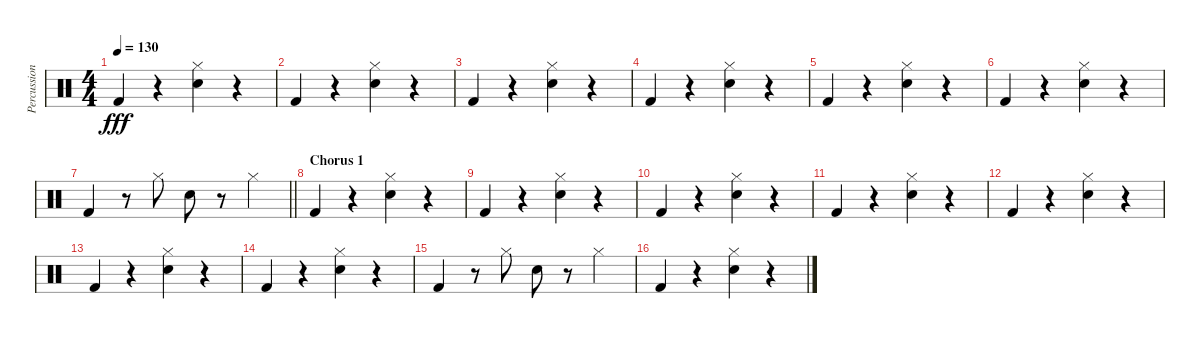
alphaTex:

\track ("Percussion" "Percussion") {instrument percussion}
\staff {score}
\articulation defaults
\ts (4 4)
\tempo 130
\clef neutral
\ks c "Kick (hit) 2".4{dy fff}
r.4 ("Hi-Hat (closed)" "Snare (hit) 2").4 r.4 |
"Kick (hit) 2".4 r.4 ("Hi-Hat (closed)" "Snare (hit) 2").4 r.4 |
"Kick (hit) 2".4 r.4 ("Hi-Hat (closed)" "Snare (hit) 2").4 r.4 |
"Kick (hit) 2".4 r.4 ("Hi-Hat (closed)" "Snare (hit) 2").4 r.4 |
"Kick (hit) 2".4 r.4 ("Hi-Hat (closed)" "Snare (hit) 2").4 r.4 |
"Kick (hit) 2".4 r.4 ("Hi-Hat (closed)" "Snare (hit) 2").4 r.4 |
\barLineRight lightlight "Kick (hit) 2".4
r.8 "Hi-Hat (closed)".8 "Snare (hit) 2".8 r.8 "Hi-Hat (closed)".4 |
\section ("" "Chorus 1")
"Kick (hit) 2".4 r.4 ("Hi-Hat (closed)" "Snare (hit) 2").4 r.4 |
"Kick (hit) 2".4 r.4 ("Hi-Hat (closed)" "Snare (hit) 2").4 r.4 |
"Kick (hit) 2".4 r.4 ("Hi-Hat (closed)" "Snare (hit) 2").4 r.4 |
"Kick (hit) 2".4 r.4 ("Hi-Hat (closed)" "Snare (hit) 2").4 r.4 |
"Kick (hit) 2".4 r.4 ("Hi-Hat (closed)" "Snare (hit) 2").4 r.4 |
"Kick (hit) 2".4 r.4 ("Hi-Hat (closed)" "Snare (hit) 2").4 r.4 |
"Kick (hit) 2".4 r.4 ("Hi-Hat (closed)" "Snare (hit) 2").4 r.4 |
"Kick (hit) 2".4 r.8 "Hi-Hat (closed)".8 "Snare (hit) 2".8 r.8 "Hi-Hat (closed)".4 |
"Kick (hit) 2".4 r.4 ("Hi-Hat (closed)" "Snare (hit) 2").4 r.4
